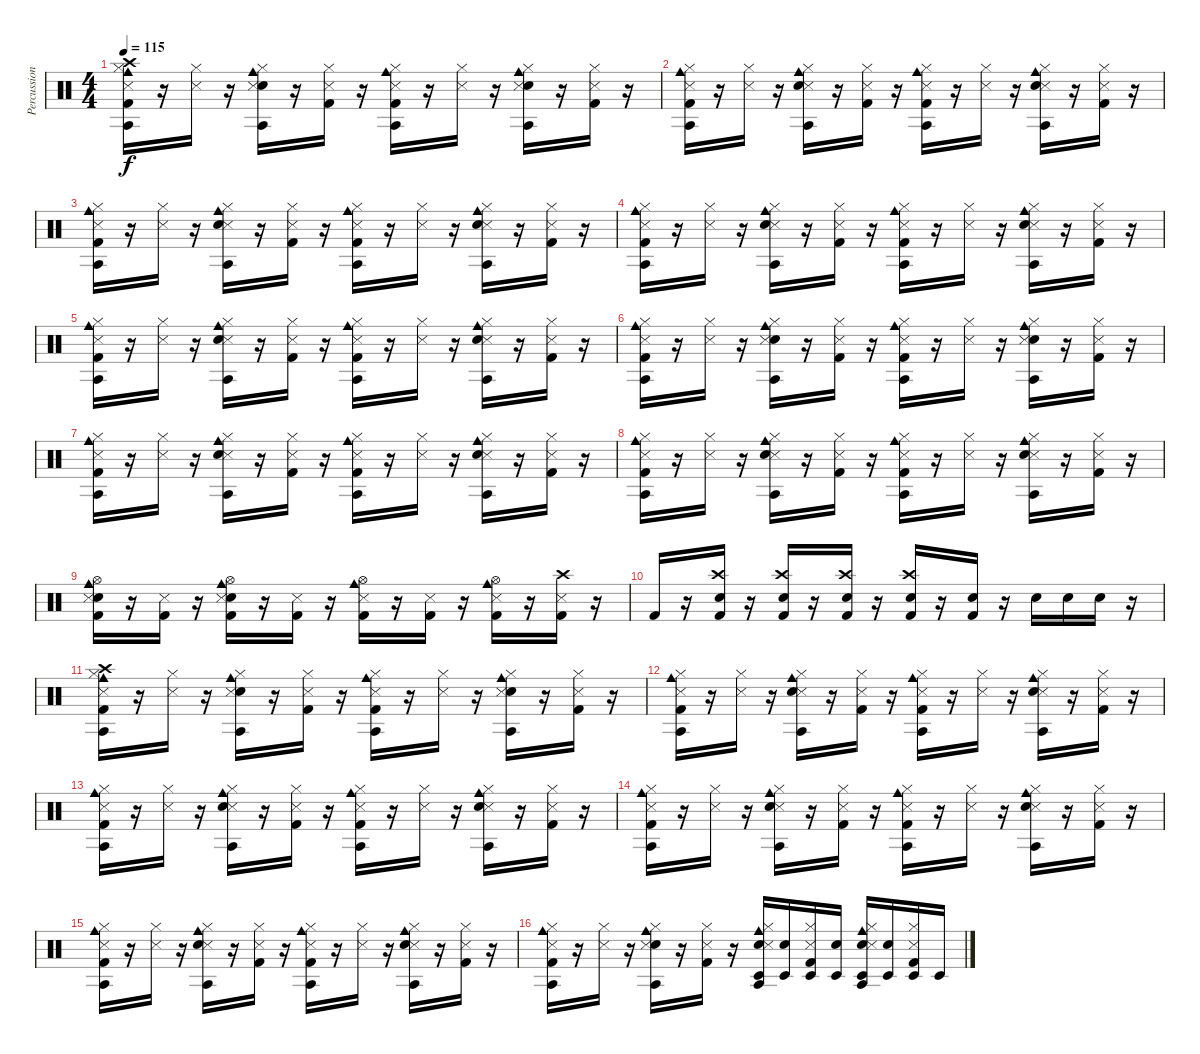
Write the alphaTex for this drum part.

\track ("Percussion" "Percussion") {instrument percussion}
\staff {score}
\articulation defaults
\ts (4 4)
\tempo 115
\clef neutral
\ks c
("Kick (hit) 2" "Hi-Hat (closed)" "Agogo tow (hit)" "Crash high (hit)" "Cowbell medium (hit)" "Snare (side stick) 3").16{dy f} r.16 ("Hi-Hat (closed)" "Snare (side stick) 3").16 r.16 ("Snare (hit) 2" "Hi-Hat (closed)" "Agogo tow (hit)" "Cowbell medium (hit)" "Snare (side stick) 3").16 r.16 ("Kick (hit) 2" "Hi-Hat (closed)" "Snare (side stick) 3").16 r.16 ("Kick (hit) 2" "Hi-Hat (closed)" "Agogo tow (hit)" "Cowbell medium (hit)" "Snare (side stick) 3").16 r.16 ("Hi-Hat (closed)" "Snare (side stick) 3").16 r.16 ("Snare (hit) 2" "Hi-Hat (closed)" "Agogo tow (hit)" "Cowbell medium (hit)" "Snare (side stick) 3").16 r.16 ("Kick (hit) 2" "Hi-Hat (closed)" "Snare (side stick) 3").16 r.16 |
("Cowbell medium (hit)" "Snare (side stick) 3" "Hi-Hat (closed)" "Agogo tow (hit)" "Kick (hit) 2").16 r.16 ("Snare (side stick) 3" "Hi-Hat (closed)").16 r.16 ("Cowbell medium (hit)" "Snare (side stick) 3" "Hi-Hat (closed)" "Agogo tow (hit)" "Snare (hit) 2").16 r.16 ("Snare (side stick) 3" "Hi-Hat (closed)" "Kick (hit) 2").16 r.16 ("Cowbell medium (hit)" "Snare (side stick) 3" "Hi-Hat (closed)" "Agogo tow (hit)" "Kick (hit) 2").16 r.16 ("Snare (side stick) 3" "Hi-Hat (closed)").16 r.16 ("Cowbell medium (hit)" "Snare (side stick) 3" "Hi-Hat (closed)" "Agogo tow (hit)" "Snare (hit) 2").16 r.16 ("Snare (side stick) 3" "Hi-Hat (closed)" "Kick (hit) 2").16 r.16 |
("Snare (side stick) 3" "Agogo tow (hit)" "Kick (hit) 2" "Cowbell medium (hit)" "Hi-Hat (closed)").16 r.16 ("Snare (side stick) 3" "Hi-Hat (closed)").16 r.16 ("Snare (side stick) 3" "Agogo tow (hit)" "Snare (hit) 2" "Cowbell medium (hit)" "Hi-Hat (closed)").16 r.16 ("Snare (side stick) 3" "Kick (hit) 2" "Hi-Hat (closed)").16 r.16 ("Snare (side stick) 3" "Agogo tow (hit)" "Kick (hit) 2" "Cowbell medium (hit)" "Hi-Hat (closed)").16 r.16 ("Snare (side stick) 3" "Hi-Hat (closed)").16 r.16 ("Snare (side stick) 3" "Agogo tow (hit)" "Snare (hit) 2" "Cowbell medium (hit)" "Hi-Hat (closed)").16 r.16 ("Snare (side stick) 3" "Kick (hit) 2" "Hi-Hat (closed)").16 r.16 |
("Cowbell medium (hit)" "Agogo tow (hit)" "Snare (side stick) 3" "Kick (hit) 2" "Hi-Hat (closed)").16 r.16 ("Snare (side stick) 3" "Hi-Hat (closed)").16 r.16 ("Cowbell medium (hit)" "Agogo tow (hit)" "Snare (side stick) 3" "Snare (hit) 2" "Hi-Hat (closed)").16 r.16 ("Snare (side stick) 3" "Kick (hit) 2" "Hi-Hat (closed)").16 r.16 ("Cowbell medium (hit)" "Agogo tow (hit)" "Snare (side stick) 3" "Kick (hit) 2" "Hi-Hat (closed)").16 r.16 ("Snare (side stick) 3" "Hi-Hat (closed)").16 r.16 ("Cowbell medium (hit)" "Agogo tow (hit)" "Snare (side stick) 3" "Snare (hit) 2" "Hi-Hat (closed)").16 r.16 ("Snare (side stick) 3" "Kick (hit) 2" "Hi-Hat (closed)").16 r.16 |
("Hi-Hat (closed)" "Cowbell medium (hit)" "Snare (side stick) 3" "Agogo tow (hit)" "Kick (hit) 2").16 r.16 ("Hi-Hat (closed)" "Snare (side stick) 3").16 r.16 ("Hi-Hat (closed)" "Cowbell medium (hit)" "Snare (side stick) 3" "Agogo tow (hit)" "Snare (hit) 2").16 r.16 ("Hi-Hat (closed)" "Snare (side stick) 3" "Kick (hit) 2").16 r.16 ("Hi-Hat (closed)" "Cowbell medium (hit)" "Snare (side stick) 3" "Agogo tow (hit)" "Kick (hit) 2").16 r.16 ("Hi-Hat (closed)" "Snare (side stick) 3").16 r.16 ("Hi-Hat (closed)" "Cowbell medium (hit)" "Snare (side stick) 3" "Agogo tow (hit)" "Snare (hit) 2").16 r.16 ("Hi-Hat (closed)" "Snare (side stick) 3" "Kick (hit) 2").16 r.16 |
("Kick (hit) 2" "Agogo tow (hit)" "Cowbell medium (hit)" "Snare (side stick) 3" "Hi-Hat (closed)").16 r.16 ("Snare (side stick) 3" "Hi-Hat (closed)").16 r.16 ("Snare (hit) 2" "Agogo tow (hit)" "Cowbell medium (hit)" "Snare (side stick) 3" "Hi-Hat (closed)").16 r.16 ("Kick (hit) 2" "Snare (side stick) 3" "Hi-Hat (closed)").16 r.16 ("Kick (hit) 2" "Agogo tow (hit)" "Cowbell medium (hit)" "Snare (side stick) 3" "Hi-Hat (closed)").16 r.16 ("Snare (side stick) 3" "Hi-Hat (closed)").16 r.16 ("Snare (hit) 2" "Agogo tow (hit)" "Cowbell medium (hit)" "Snare (side stick) 3" "Hi-Hat (closed)").16 r.16 ("Kick (hit) 2" "Snare (side stick) 3" "Hi-Hat (closed)").16 r.16 |
("Agogo tow (hit)" "Snare (side stick) 3" "Cowbell medium (hit)" "Hi-Hat (closed)" "Kick (hit) 2").16 r.16 ("Snare (side stick) 3" "Hi-Hat (closed)").16 r.16 ("Agogo tow (hit)" "Snare (side stick) 3" "Cowbell medium (hit)" "Hi-Hat (closed)" "Snare (hit) 2").16 r.16 ("Snare (side stick) 3" "Hi-Hat (closed)" "Kick (hit) 2").16 r.16 ("Agogo tow (hit)" "Snare (side stick) 3" "Cowbell medium (hit)" "Hi-Hat (closed)" "Kick (hit) 2").16 r.16 ("Snare (side stick) 3" "Hi-Hat (closed)").16 r.16 ("Agogo tow (hit)" "Snare (side stick) 3" "Cowbell medium (hit)" "Hi-Hat (closed)" "Snare (hit) 2").16 r.16 ("Snare (side stick) 3" "Hi-Hat (closed)" "Kick (hit) 2").16 r.16 |
("Cowbell medium (hit)" "Snare (side stick) 3" "Agogo tow (hit)" "Kick (hit) 2" "Hi-Hat (closed)").16 r.16 ("Snare (side stick) 3" "Hi-Hat (closed)").16 r.16 ("Cowbell medium (hit)" "Snare (side stick) 3" "Agogo tow (hit)" "Snare (hit) 2" "Hi-Hat (closed)").16 r.16 ("Snare (side stick) 3" "Kick (hit) 2" "Hi-Hat (closed)").16 r.16 ("Cowbell medium (hit)" "Snare (side stick) 3" "Agogo tow (hit)" "Kick (hit) 2" "Hi-Hat (closed)").16 r.16 ("Snare (side stick) 3" "Hi-Hat (closed)").16 r.16 ("Cowbell medium (hit)" "Snare (side stick) 3" "Agogo tow (hit)" "Snare (hit) 2" "Hi-Hat (closed)").16 r.16 ("Snare (side stick) 3" "Kick (hit) 2" "Hi-Hat (closed)").16 r.16 |
("Electric Snare (hit)" "Snare (side stick) 3" "Cowbell medium (hit)" "Hi-Hat (open)" "Kick (hit) 2").16 r.16 ("Snare (side stick) 3" "Kick (hit) 2").16 r.16 ("Electric Snare (hit)" "Snare (side stick) 3" "Cowbell medium (hit)" "Hi-Hat (open)" "Kick (hit) 2").16 r.16 ("Snare (side stick) 3" "Kick (hit) 2").16 r.16 ("Snare (side stick) 3" "Cowbell medium (hit)" "Hi-Hat (open)" "Kick (hit) 2").16 r.16 ("Snare (side stick) 3" "Kick (hit) 2").16 r.16 ("Snare (side stick) 3" "Cowbell medium (hit)" "Hi-Hat (open)" "Kick (hit) 2").16 r.16 ("Crash high (hit)" "Snare (side stick) 3" "Kick (hit) 2").16 r.16 |
"Kick (hit) 2".16 r.16 ("Crash high (hit)" "Snare (hit) 2" "Kick (hit) 2").16 r.16 ("Snare (hit) 2" "Crash high (hit)" "Kick (hit) 2").16 r.16 ("Snare (hit) 2" "Kick (hit) 2" "Crash high (hit)").16 r.16 ("Snare (hit) 2" "Crash high (hit)" "Kick (hit) 2").16 r.16 ("Snare (hit) 2" "Kick (hit) 2").16 r.16 "Snare (hit) 2".16 "Snare (hit) 2".16 "Snare (hit) 2".16 r.16 |
("Kick (hit) 2" "Hi-Hat (closed)" "Agogo tow (hit)" "Crash high (hit)" "Cowbell medium (hit)" "Snare (side stick) 3").16 r.16 ("Hi-Hat (closed)" "Snare (side stick) 3").16 r.16 ("Snare (hit) 2" "Hi-Hat (closed)" "Agogo tow (hit)" "Cowbell medium (hit)" "Snare (side stick) 3").16 r.16 ("Kick (hit) 2" "Hi-Hat (closed)" "Snare (side stick) 3").16 r.16 ("Kick (hit) 2" "Hi-Hat (closed)" "Agogo tow (hit)" "Cowbell medium (hit)" "Snare (side stick) 3").16 r.16 ("Hi-Hat (closed)" "Snare (side stick) 3").16 r.16 ("Snare (hit) 2" "Hi-Hat (closed)" "Agogo tow (hit)" "Cowbell medium (hit)" "Snare (side stick) 3").16 r.16 ("Kick (hit) 2" "Hi-Hat (closed)" "Snare (side stick) 3").16 r.16 |
("Cowbell medium (hit)" "Snare (side stick) 3" "Hi-Hat (closed)" "Agogo tow (hit)" "Kick (hit) 2").16 r.16 ("Snare (side stick) 3" "Hi-Hat (closed)").16 r.16 ("Cowbell medium (hit)" "Snare (side stick) 3" "Hi-Hat (closed)" "Agogo tow (hit)" "Snare (hit) 2").16 r.16 ("Snare (side stick) 3" "Hi-Hat (closed)" "Kick (hit) 2").16 r.16 ("Cowbell medium (hit)" "Snare (side stick) 3" "Hi-Hat (closed)" "Agogo tow (hit)" "Kick (hit) 2").16 r.16 ("Snare (side stick) 3" "Hi-Hat (closed)").16 r.16 ("Cowbell medium (hit)" "Snare (side stick) 3" "Hi-Hat (closed)" "Agogo tow (hit)" "Snare (hit) 2").16 r.16 ("Snare (side stick) 3" "Hi-Hat (closed)" "Kick (hit) 2").16 r.16 |
("Snare (side stick) 3" "Agogo tow (hit)" "Kick (hit) 2" "Cowbell medium (hit)" "Hi-Hat (closed)").16 r.16 ("Snare (side stick) 3" "Hi-Hat (closed)").16 r.16 ("Snare (side stick) 3" "Agogo tow (hit)" "Snare (hit) 2" "Cowbell medium (hit)" "Hi-Hat (closed)").16 r.16 ("Snare (side stick) 3" "Kick (hit) 2" "Hi-Hat (closed)").16 r.16 ("Snare (side stick) 3" "Agogo tow (hit)" "Kick (hit) 2" "Cowbell medium (hit)" "Hi-Hat (closed)").16 r.16 ("Snare (side stick) 3" "Hi-Hat (closed)").16 r.16 ("Snare (side stick) 3" "Agogo tow (hit)" "Snare (hit) 2" "Cowbell medium (hit)" "Hi-Hat (closed)").16 r.16 ("Snare (side stick) 3" "Kick (hit) 2" "Hi-Hat (closed)").16 r.16 |
("Cowbell medium (hit)" "Agogo tow (hit)" "Snare (side stick) 3" "Kick (hit) 2" "Hi-Hat (closed)").16 r.16 ("Snare (side stick) 3" "Hi-Hat (closed)").16 r.16 ("Cowbell medium (hit)" "Agogo tow (hit)" "Snare (side stick) 3" "Snare (hit) 2" "Hi-Hat (closed)").16 r.16 ("Snare (side stick) 3" "Kick (hit) 2" "Hi-Hat (closed)").16 r.16 ("Cowbell medium (hit)" "Agogo tow (hit)" "Snare (side stick) 3" "Kick (hit) 2" "Hi-Hat (closed)").16 r.16 ("Snare (side stick) 3" "Hi-Hat (closed)").16 r.16 ("Cowbell medium (hit)" "Agogo tow (hit)" "Snare (side stick) 3" "Snare (hit) 2" "Hi-Hat (closed)").16 r.16 ("Snare (side stick) 3" "Kick (hit) 2" "Hi-Hat (closed)").16 r.16 |
("Hi-Hat (closed)" "Cowbell medium (hit)" "Snare (side stick) 3" "Agogo tow (hit)" "Kick (hit) 2").16 r.16 ("Hi-Hat (closed)" "Snare (side stick) 3").16 r.16 ("Hi-Hat (closed)" "Cowbell medium (hit)" "Snare (side stick) 3" "Agogo tow (hit)" "Snare (hit) 2").16 r.16 ("Hi-Hat (closed)" "Snare (side stick) 3" "Kick (hit) 2").16 r.16 ("Hi-Hat (closed)" "Cowbell medium (hit)" "Snare (side stick) 3" "Agogo tow (hit)" "Kick (hit) 2").16 r.16 ("Hi-Hat (closed)" "Snare (side stick) 3").16 r.16 ("Hi-Hat (closed)" "Cowbell medium (hit)" "Snare (side stick) 3" "Agogo tow (hit)" "Snare (hit) 2").16 r.16 ("Hi-Hat (closed)" "Snare (side stick) 3" "Kick (hit) 2").16 r.16 |
("Kick (hit) 2" "Agogo tow (hit)" "Cowbell medium (hit)" "Snare (side stick) 3" "Hi-Hat (closed)").16 r.16 ("Snare (side stick) 3" "Hi-Hat (closed)").16 r.16 ("Snare (hit) 2" "Agogo tow (hit)" "Cowbell medium (hit)" "Snare (side stick) 3" "Hi-Hat (closed)").16 r.16 ("Kick (hit) 2" "Snare (side stick) 3" "Hi-Hat (closed)").16 r.16 ("Snare (hit) 2" "Timbale low (hit)" "Agogo tow (hit)" "Cowbell medium (hit)" "Snare (side stick) 3" "Hi-Hat (closed)").16 ("Snare (hit)" "Timbale low (hit)").16 ("Timbale low (hit)" "Snare (side stick) 3" "Hi-Hat (closed)" "Kick (hit) 2").16 ("Snare (hit)" "Timbale low (hit)").16 ("Snare (hit) 2" "Agogo tow (hit)" "Cowbell medium (hit)" "Snare (side stick) 3" "Hi-Hat (closed)" "Timbale low (hit)").16 ("Snare (hit)" "Timbale low (hit)").16 ("Timbale low (hit)" "Kick (hit) 2" "Snare (side stick) 3" "Hi-Hat (closed)").16 "Timbale low (hit)".16
